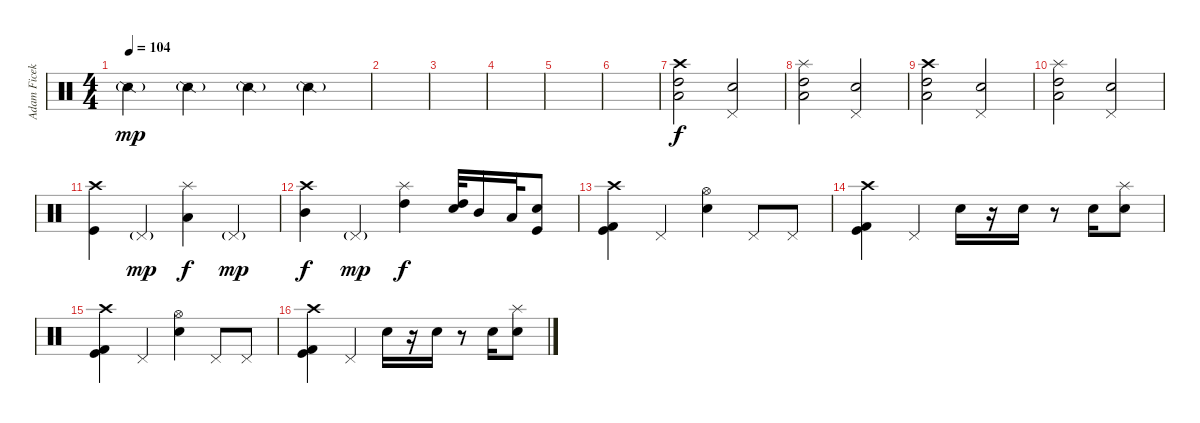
\track ("Adam Ficek" "Adam Ficek") {instrument percussion}
\staff {score}
\articulation defaults
\ts (4 4)
\tempo 104
\clef neutral
\ks c "Snare (side stick) 2"{g}.4{dy mp} "Snare (side stick) 2"{g}.4 "Snare (side stick) 2"{g}.4 "Snare (side stick) 2"{g}.4
|
|
|
|
|
|
("Low Tom (hit)" "High Tom (hit)" "Crash high (hit)").2{dy f} ("Snare (hit) 2" "Pedal Hi-Hat (hit)").2 |
("Low Tom (hit)" "High Tom (hit)" "Splash (hit)").2 ("Snare (hit) 2" "Pedal Hi-Hat (hit)").2 |
("Low Tom (hit)" "High Tom (hit)" "Crash high (hit)").2 ("Snare (hit) 2" "Pedal Hi-Hat (hit)").2 |
("Low Tom (hit)" "High Tom (hit)" "Splash (hit)").2 ("Snare (hit) 2" "Pedal Hi-Hat (hit)").2 |
("Kick (hit)" "Crash high (hit)").4 "Pedal Hi-Hat (hit)"{g}.4{dy mp} ("Low Tom (hit)" "Splash (hit)").4{dy f} "Pedal Hi-Hat (hit)"{g}.4{dy mp} |
("Mid Tom (hit)" "Crash high (hit)").4{dy f} "Pedal Hi-Hat (hit)"{g}.4{dy mp} ("High Tom (hit)" "Splash (hit)").4{dy f} ("High Tom (hit)" "Snare (hit) 2").32 "Mid Tom (hit)".16 "Low Tom (hit)".32 ("Kick (hit)" "Snare (hit) 2").8 |
("Kick (hit) 2" "Kick (hit)" "Crash high (hit)").4 "Pedal Hi-Hat (hit)".4 ("Snare (hit) 2" "Hi-Hat (open)").4 "Pedal Hi-Hat (hit)".8 "Pedal Hi-Hat (hit)".8 |
("Kick (hit) 2" "Kick (hit)" "Crash high (hit)").4 "Pedal Hi-Hat (hit)".4 "Snare (hit) 2".16 r.16 "Snare (hit) 2".16 r.8 "Snare (hit) 2".16 ("Snare (hit) 2" "Splash (hit)").8 |
("Kick (hit) 2" "Kick (hit)" "Crash high (hit)").4 "Pedal Hi-Hat (hit)".4 ("Snare (hit) 2" "Hi-Hat (open)").4 "Pedal Hi-Hat (hit)".8 "Pedal Hi-Hat (hit)".8 |
("Kick (hit) 2" "Kick (hit)" "Crash high (hit)").4 "Pedal Hi-Hat (hit)".4 "Snare (hit) 2".16 r.16 "Snare (hit) 2".16 r.8 "Snare (hit) 2".16 ("Snare (hit) 2" "Splash (hit)").8
